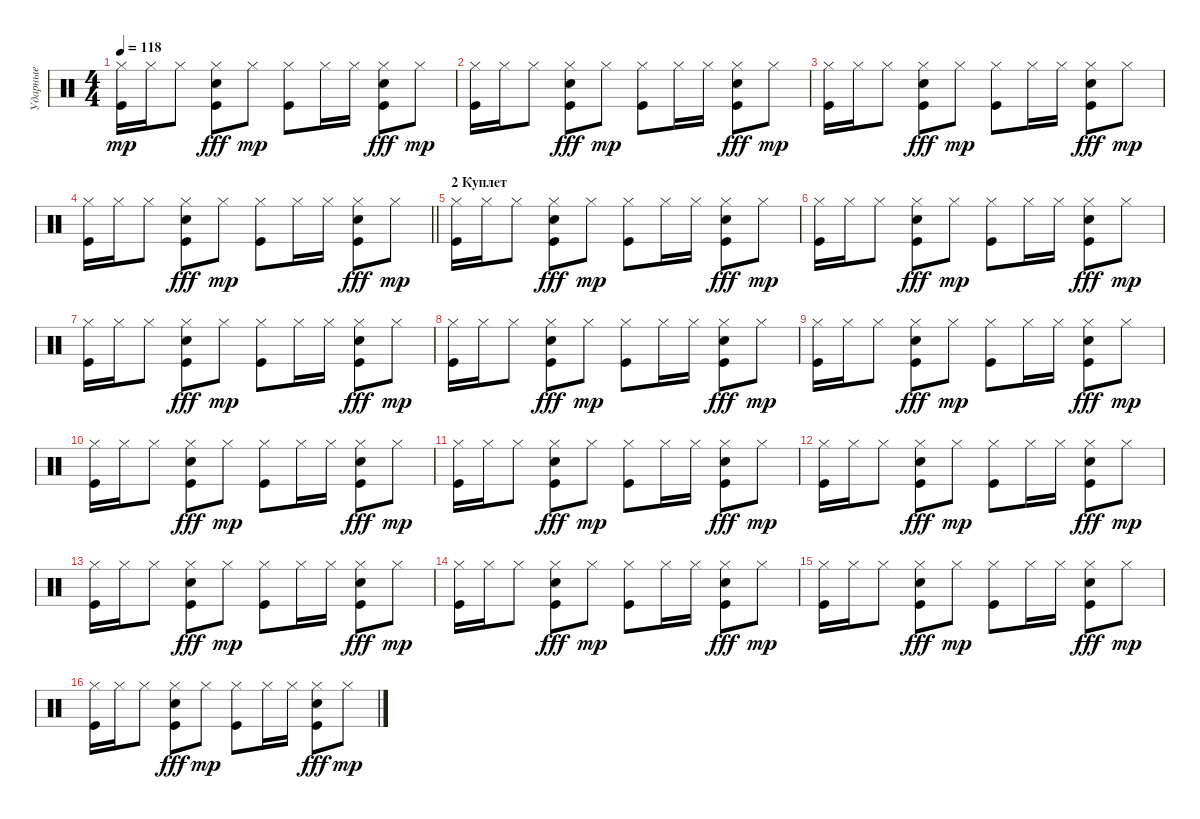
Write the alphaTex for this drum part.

\track ("Ударные" "Ударные") {instrument percussion}
\staff {score}
\articulation defaults
\ts (4 4)
\tempo 118
\clef neutral
\ks c
("Kick (hit)" "Hi-Hat (closed)").16{dy mp} "Hi-Hat (closed)".16 "Hi-Hat (closed)".8 ("Kick (hit)" "Hi-Hat (closed)" "Electric Snare (hit)").8{dy fff} "Hi-Hat (closed)".8{dy mp} ("Kick (hit)" "Hi-Hat (closed)").8 "Hi-Hat (closed)".16 "Hi-Hat (closed)".16 ("Hi-Hat (closed)" "Kick (hit)" "Electric Snare (hit)").8{dy fff} "Hi-Hat (closed)".8{dy mp} |
("Kick (hit)" "Hi-Hat (closed)").16 "Hi-Hat (closed)".16 "Hi-Hat (closed)".8 ("Kick (hit)" "Hi-Hat (closed)" "Electric Snare (hit)").8{dy fff} "Hi-Hat (closed)".8{dy mp} ("Kick (hit)" "Hi-Hat (closed)").8 "Hi-Hat (closed)".16 "Hi-Hat (closed)".16 ("Hi-Hat (closed)" "Kick (hit)" "Electric Snare (hit)").8{dy fff} "Hi-Hat (closed)".8{dy mp} |
("Kick (hit)" "Hi-Hat (closed)").16 "Hi-Hat (closed)".16 "Hi-Hat (closed)".8 ("Kick (hit)" "Hi-Hat (closed)" "Electric Snare (hit)").8{dy fff} "Hi-Hat (closed)".8{dy mp} ("Kick (hit)" "Hi-Hat (closed)").8 "Hi-Hat (closed)".16 "Hi-Hat (closed)".16 ("Hi-Hat (closed)" "Kick (hit)" "Electric Snare (hit)").8{dy fff} "Hi-Hat (closed)".8{dy mp} |
\barLineRight lightlight
("Kick (hit)" "Hi-Hat (closed)").16 "Hi-Hat (closed)".16 "Hi-Hat (closed)".8 ("Kick (hit)" "Hi-Hat (closed)" "Electric Snare (hit)").8{dy fff} "Hi-Hat (closed)".8{dy mp} ("Kick (hit)" "Hi-Hat (closed)").8 "Hi-Hat (closed)".16 "Hi-Hat (closed)".16 ("Hi-Hat (closed)" "Kick (hit)" "Electric Snare (hit)").8{dy fff} "Hi-Hat (closed)".8{dy mp} |
\section ("" "2 Куплет")
("Kick (hit)" "Hi-Hat (closed)").16 "Hi-Hat (closed)".16 "Hi-Hat (closed)".8 ("Kick (hit)" "Hi-Hat (closed)" "Electric Snare (hit)").8{dy fff} "Hi-Hat (closed)".8{dy mp} ("Kick (hit)" "Hi-Hat (closed)").8 "Hi-Hat (closed)".16 "Hi-Hat (closed)".16 ("Hi-Hat (closed)" "Kick (hit)" "Electric Snare (hit)").8{dy fff} "Hi-Hat (closed)".8{dy mp} |
("Kick (hit)" "Hi-Hat (closed)").16 "Hi-Hat (closed)".16 "Hi-Hat (closed)".8 ("Kick (hit)" "Hi-Hat (closed)" "Electric Snare (hit)").8{dy fff} "Hi-Hat (closed)".8{dy mp} ("Kick (hit)" "Hi-Hat (closed)").8 "Hi-Hat (closed)".16 "Hi-Hat (closed)".16 ("Hi-Hat (closed)" "Kick (hit)" "Electric Snare (hit)").8{dy fff} "Hi-Hat (closed)".8{dy mp} |
("Kick (hit)" "Hi-Hat (closed)").16 "Hi-Hat (closed)".16 "Hi-Hat (closed)".8 ("Kick (hit)" "Hi-Hat (closed)" "Electric Snare (hit)").8{dy fff} "Hi-Hat (closed)".8{dy mp} ("Kick (hit)" "Hi-Hat (closed)").8 "Hi-Hat (closed)".16 "Hi-Hat (closed)".16 ("Hi-Hat (closed)" "Kick (hit)" "Electric Snare (hit)").8{dy fff} "Hi-Hat (closed)".8{dy mp} |
("Kick (hit)" "Hi-Hat (closed)").16 "Hi-Hat (closed)".16 "Hi-Hat (closed)".8 ("Kick (hit)" "Hi-Hat (closed)" "Electric Snare (hit)").8{dy fff} "Hi-Hat (closed)".8{dy mp} ("Kick (hit)" "Hi-Hat (closed)").8 "Hi-Hat (closed)".16 "Hi-Hat (closed)".16 ("Hi-Hat (closed)" "Kick (hit)" "Electric Snare (hit)").8{dy fff} "Hi-Hat (closed)".8{dy mp} |
("Kick (hit)" "Hi-Hat (closed)").16 "Hi-Hat (closed)".16 "Hi-Hat (closed)".8 ("Kick (hit)" "Hi-Hat (closed)" "Electric Snare (hit)").8{dy fff} "Hi-Hat (closed)".8{dy mp} ("Kick (hit)" "Hi-Hat (closed)").8 "Hi-Hat (closed)".16 "Hi-Hat (closed)".16 ("Hi-Hat (closed)" "Kick (hit)" "Electric Snare (hit)").8{dy fff} "Hi-Hat (closed)".8{dy mp} |
("Kick (hit)" "Hi-Hat (closed)").16 "Hi-Hat (closed)".16 "Hi-Hat (closed)".8 ("Kick (hit)" "Hi-Hat (closed)" "Electric Snare (hit)").8{dy fff} "Hi-Hat (closed)".8{dy mp} ("Kick (hit)" "Hi-Hat (closed)").8 "Hi-Hat (closed)".16 "Hi-Hat (closed)".16 ("Hi-Hat (closed)" "Kick (hit)" "Electric Snare (hit)").8{dy fff} "Hi-Hat (closed)".8{dy mp} |
("Kick (hit)" "Hi-Hat (closed)").16 "Hi-Hat (closed)".16 "Hi-Hat (closed)".8 ("Kick (hit)" "Hi-Hat (closed)" "Electric Snare (hit)").8{dy fff} "Hi-Hat (closed)".8{dy mp} ("Kick (hit)" "Hi-Hat (closed)").8 "Hi-Hat (closed)".16 "Hi-Hat (closed)".16 ("Hi-Hat (closed)" "Kick (hit)" "Electric Snare (hit)").8{dy fff} "Hi-Hat (closed)".8{dy mp} |
("Kick (hit)" "Hi-Hat (closed)").16 "Hi-Hat (closed)".16 "Hi-Hat (closed)".8 ("Kick (hit)" "Hi-Hat (closed)" "Electric Snare (hit)").8{dy fff} "Hi-Hat (closed)".8{dy mp} ("Kick (hit)" "Hi-Hat (closed)").8 "Hi-Hat (closed)".16 "Hi-Hat (closed)".16 ("Hi-Hat (closed)" "Kick (hit)" "Electric Snare (hit)").8{dy fff} "Hi-Hat (closed)".8{dy mp} |
("Kick (hit)" "Hi-Hat (closed)").16 "Hi-Hat (closed)".16 "Hi-Hat (closed)".8 ("Kick (hit)" "Hi-Hat (closed)" "Electric Snare (hit)").8{dy fff} "Hi-Hat (closed)".8{dy mp} ("Kick (hit)" "Hi-Hat (closed)").8 "Hi-Hat (closed)".16 "Hi-Hat (closed)".16 ("Hi-Hat (closed)" "Kick (hit)" "Electric Snare (hit)").8{dy fff} "Hi-Hat (closed)".8{dy mp} |
("Kick (hit)" "Hi-Hat (closed)").16 "Hi-Hat (closed)".16 "Hi-Hat (closed)".8 ("Kick (hit)" "Hi-Hat (closed)" "Electric Snare (hit)").8{dy fff} "Hi-Hat (closed)".8{dy mp} ("Kick (hit)" "Hi-Hat (closed)").8 "Hi-Hat (closed)".16 "Hi-Hat (closed)".16 ("Hi-Hat (closed)" "Kick (hit)" "Electric Snare (hit)").8{dy fff} "Hi-Hat (closed)".8{dy mp} |
("Kick (hit)" "Hi-Hat (closed)").16 "Hi-Hat (closed)".16 "Hi-Hat (closed)".8 ("Kick (hit)" "Hi-Hat (closed)" "Electric Snare (hit)").8{dy fff} "Hi-Hat (closed)".8{dy mp} ("Kick (hit)" "Hi-Hat (closed)").8 "Hi-Hat (closed)".16 "Hi-Hat (closed)".16 ("Hi-Hat (closed)" "Kick (hit)" "Electric Snare (hit)").8{dy fff} "Hi-Hat (closed)".8{dy mp} |
("Kick (hit)" "Hi-Hat (closed)").16 "Hi-Hat (closed)".16 "Hi-Hat (closed)".8 ("Kick (hit)" "Hi-Hat (closed)" "Electric Snare (hit)").8{dy fff} "Hi-Hat (closed)".8{dy mp} ("Kick (hit)" "Hi-Hat (closed)").8 "Hi-Hat (closed)".16 "Hi-Hat (closed)".16 ("Hi-Hat (closed)" "Kick (hit)" "Electric Snare (hit)").8{dy fff} "Hi-Hat (closed)".8{dy mp}
